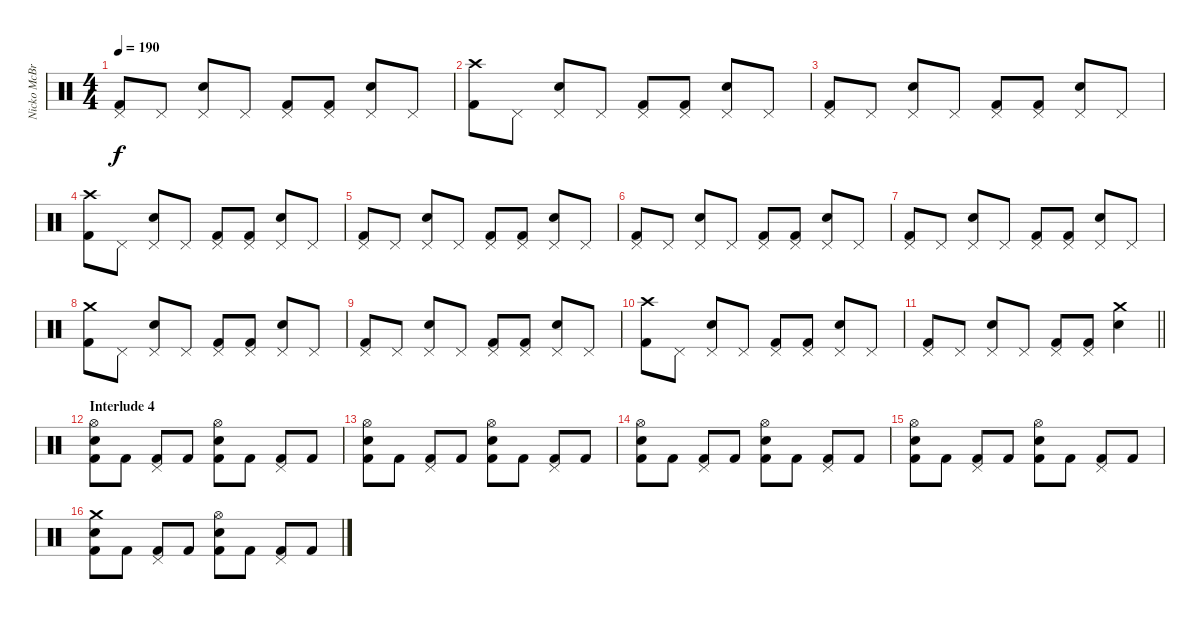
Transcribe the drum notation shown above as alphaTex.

\track ("Nicko McBrain" "Nicko McBr") {instrument percussion}
\staff {score}
\articulation defaults
\ts (4 4)
\tempo 190
\clef neutral
\ks c
("Pedal Hi-Hat (hit)" "Kick (hit) 2").8{dy f} "Pedal Hi-Hat (hit)".8 ("Pedal Hi-Hat (hit)" "Electric Snare (hit)").8 "Pedal Hi-Hat (hit)".8 ("Pedal Hi-Hat (hit)" "Kick (hit) 2").8 ("Pedal Hi-Hat (hit)" "Kick (hit) 2").8 ("Pedal Hi-Hat (hit)" "Electric Snare (hit)").8 "Pedal Hi-Hat (hit)".8 |
("Crash high (hit)" "Kick (hit) 2").8 "Pedal Hi-Hat (hit)".8 ("Pedal Hi-Hat (hit)" "Electric Snare (hit)").8 "Pedal Hi-Hat (hit)".8 ("Pedal Hi-Hat (hit)" "Kick (hit) 2").8 ("Pedal Hi-Hat (hit)" "Kick (hit) 2").8 ("Pedal Hi-Hat (hit)" "Electric Snare (hit)").8 "Pedal Hi-Hat (hit)".8 |
("Pedal Hi-Hat (hit)" "Kick (hit) 2").8 "Pedal Hi-Hat (hit)".8 ("Pedal Hi-Hat (hit)" "Electric Snare (hit)").8 "Pedal Hi-Hat (hit)".8 ("Pedal Hi-Hat (hit)" "Kick (hit) 2").8 ("Pedal Hi-Hat (hit)" "Kick (hit) 2").8 ("Pedal Hi-Hat (hit)" "Electric Snare (hit)").8 "Pedal Hi-Hat (hit)".8 |
("Crash high (hit)" "Kick (hit) 2").8 "Pedal Hi-Hat (hit)".8 ("Pedal Hi-Hat (hit)" "Electric Snare (hit)").8 "Pedal Hi-Hat (hit)".8 ("Pedal Hi-Hat (hit)" "Kick (hit) 2").8 ("Pedal Hi-Hat (hit)" "Kick (hit) 2").8 ("Pedal Hi-Hat (hit)" "Electric Snare (hit)").8 "Pedal Hi-Hat (hit)".8 |
("Pedal Hi-Hat (hit)" "Kick (hit) 2").8 "Pedal Hi-Hat (hit)".8 ("Pedal Hi-Hat (hit)" "Electric Snare (hit)").8 "Pedal Hi-Hat (hit)".8 ("Pedal Hi-Hat (hit)" "Kick (hit) 2").8 ("Pedal Hi-Hat (hit)" "Kick (hit) 2").8 ("Pedal Hi-Hat (hit)" "Electric Snare (hit)").8 "Pedal Hi-Hat (hit)".8 |
("Pedal Hi-Hat (hit)" "Kick (hit) 2").8 "Pedal Hi-Hat (hit)".8 ("Pedal Hi-Hat (hit)" "Electric Snare (hit)").8 "Pedal Hi-Hat (hit)".8 ("Pedal Hi-Hat (hit)" "Kick (hit) 2").8 ("Pedal Hi-Hat (hit)" "Kick (hit) 2").8 ("Pedal Hi-Hat (hit)" "Electric Snare (hit)").8 "Pedal Hi-Hat (hit)".8 |
("Pedal Hi-Hat (hit)" "Kick (hit) 2").8 "Pedal Hi-Hat (hit)".8 ("Pedal Hi-Hat (hit)" "Electric Snare (hit)").8 "Pedal Hi-Hat (hit)".8 ("Pedal Hi-Hat (hit)" "Kick (hit) 2").8 ("Pedal Hi-Hat (hit)" "Kick (hit) 2").8 ("Pedal Hi-Hat (hit)" "Electric Snare (hit)").8 "Pedal Hi-Hat (hit)".8 |
("Crash medium (hit)" "Kick (hit) 2").8 "Pedal Hi-Hat (hit)".8 ("Pedal Hi-Hat (hit)" "Electric Snare (hit)").8 "Pedal Hi-Hat (hit)".8 ("Pedal Hi-Hat (hit)" "Kick (hit) 2").8 ("Pedal Hi-Hat (hit)" "Kick (hit) 2").8 ("Pedal Hi-Hat (hit)" "Electric Snare (hit)").8 "Pedal Hi-Hat (hit)".8 |
("Pedal Hi-Hat (hit)" "Kick (hit) 2").8 "Pedal Hi-Hat (hit)".8 ("Pedal Hi-Hat (hit)" "Electric Snare (hit)").8 "Pedal Hi-Hat (hit)".8 ("Pedal Hi-Hat (hit)" "Kick (hit) 2").8 ("Pedal Hi-Hat (hit)" "Kick (hit) 2").8 ("Pedal Hi-Hat (hit)" "Electric Snare (hit)").8 "Pedal Hi-Hat (hit)".8 |
("Crash high (hit)" "Kick (hit) 2").8 "Pedal Hi-Hat (hit)".8 ("Pedal Hi-Hat (hit)" "Electric Snare (hit)").8 "Pedal Hi-Hat (hit)".8 ("Pedal Hi-Hat (hit)" "Kick (hit) 2").8 ("Pedal Hi-Hat (hit)" "Kick (hit) 2").8 ("Pedal Hi-Hat (hit)" "Electric Snare (hit)").8 "Pedal Hi-Hat (hit)".8 |
\barLineRight lightlight
("Pedal Hi-Hat (hit)" "Kick (hit) 2").8 "Pedal Hi-Hat (hit)".8 ("Pedal Hi-Hat (hit)" "Electric Snare (hit)").8 "Pedal Hi-Hat (hit)".8 ("Pedal Hi-Hat (hit)" "Kick (hit) 2").8 ("Pedal Hi-Hat (hit)" "Kick (hit) 2").8 ("Crash medium (hit)" "Electric Snare (hit)").4 |
\section ("" "Interlude 4")
("Hi-Hat (open)" "Electric Snare (hit)" "Kick (hit) 2").8 "Kick (hit) 2".8 ("Pedal Hi-Hat (hit)" "Kick (hit) 2").8 "Kick (hit) 2".8 ("Hi-Hat (open)" "Electric Snare (hit)" "Kick (hit) 2").8 "Kick (hit) 2".8 ("Pedal Hi-Hat (hit)" "Kick (hit) 2").8 "Kick (hit) 2".8 |
("Hi-Hat (open)" "Electric Snare (hit)" "Kick (hit) 2").8 "Kick (hit) 2".8 ("Pedal Hi-Hat (hit)" "Kick (hit) 2").8 "Kick (hit) 2".8 ("Hi-Hat (open)" "Electric Snare (hit)" "Kick (hit) 2").8 "Kick (hit) 2".8 ("Pedal Hi-Hat (hit)" "Kick (hit) 2").8 "Kick (hit) 2".8 |
("Hi-Hat (open)" "Electric Snare (hit)" "Kick (hit) 2").8 "Kick (hit) 2".8 ("Pedal Hi-Hat (hit)" "Kick (hit) 2").8 "Kick (hit) 2".8 ("Hi-Hat (open)" "Electric Snare (hit)" "Kick (hit) 2").8 "Kick (hit) 2".8 ("Pedal Hi-Hat (hit)" "Kick (hit) 2").8 "Kick (hit) 2".8 |
("Hi-Hat (open)" "Electric Snare (hit)" "Kick (hit) 2").8 "Kick (hit) 2".8 ("Pedal Hi-Hat (hit)" "Kick (hit) 2").8 "Kick (hit) 2".8 ("Hi-Hat (open)" "Electric Snare (hit)" "Kick (hit) 2").8 "Kick (hit) 2".8 ("Pedal Hi-Hat (hit)" "Kick (hit) 2").8 "Kick (hit) 2".8 |
("Crash medium (hit)" "Electric Snare (hit)" "Kick (hit) 2").8 "Kick (hit) 2".8 ("Pedal Hi-Hat (hit)" "Kick (hit) 2").8 "Kick (hit) 2".8 ("Hi-Hat (open)" "Electric Snare (hit)" "Kick (hit) 2").8 "Kick (hit) 2".8 ("Pedal Hi-Hat (hit)" "Kick (hit) 2").8 "Kick (hit) 2".8
